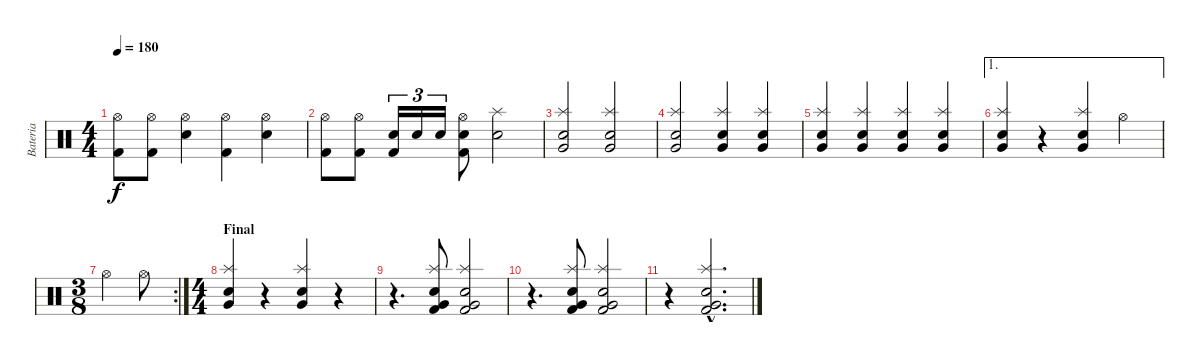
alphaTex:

\track ("Bateria" "Bateria") {instrument percussion}
\staff {score}
\articulation defaults
\ts (4 4)
\tempo 180
\clef neutral
\ks c
("Hi-Hat (open)" "Kick (hit) 2").8{dy f} ("Hi-Hat (open)" "Kick (hit) 2").8 ("Hi-Hat (open)" "Electric Snare (hit)").4 ("Hi-Hat (open)" "Kick (hit) 2").4 ("Hi-Hat (open)" "Electric Snare (hit)").4 |
("Hi-Hat (open)" "Kick (hit) 2").8 ("Hi-Hat (open)" "Kick (hit) 2").8 ("Electric Snare (hit)" "Kick (hit) 2").16{tu (3 2)} "Electric Snare (hit)".16{tu (3 2)} "Electric Snare (hit)".16{tu (3 2)} ("Hi-Hat (open)" "Electric Snare (hit)" "Kick (hit) 2").8 ("Splash (hit)" "Electric Snare (hit)").2 |
("Splash (hit)" "Electric Snare (hit)" "Very Low Tom (hit)").2 ("Splash (hit)" "Electric Snare (hit)" "Very Low Tom (hit)").2 |
("Splash (hit)" "Electric Snare (hit)" "Very Low Tom (hit)").2 ("Splash (hit)" "Electric Snare (hit)" "Very Low Tom (hit)").4 ("Splash (hit)" "Electric Snare (hit)" "Very Low Tom (hit)").4 |
("Splash (hit)" "Electric Snare (hit)" "Very Low Tom (hit)").4 ("Splash (hit)" "Electric Snare (hit)" "Very Low Tom (hit)").4 ("Splash (hit)" "Electric Snare (hit)" "Very Low Tom (hit)").4 ("Splash (hit)" "Electric Snare (hit)" "Very Low Tom (hit)").4 |
\ae 1
("Splash (hit)" "Electric Snare (hit)" "Very Low Tom (hit)").4 r.4 ("Splash (hit)" "Electric Snare (hit)" "Very Low Tom (hit)").4 "Hi-Hat (open)".4 |
\rc 2
\ts (3 8)
"Hi-Hat (open)".4 "Hi-Hat (open)".8 |
\ts (4 4)
\section ("" "Final")
("Splash (hit)" "Electric Snare (hit)" "Very Low Tom (hit)").4 r.4 ("Splash (hit)" "Electric Snare (hit)" "Very Low Tom (hit)").4 r.4 |
r.4{d} ("Splash (hit)" "Electric Snare (hit)" "Very Low Tom (hit)" "Kick (hit) 2").8 ("Splash (hit)" "Electric Snare (hit)" "Very Low Tom (hit)" "Kick (hit) 2").2 |
r.4{d} ("Splash (hit)" "Electric Snare (hit)" "Very Low Tom (hit)" "Kick (hit) 2").8 ("Splash (hit)" "Electric Snare (hit)" "Very Low Tom (hit)" "Kick (hit) 2").2 |
r.4 ("Splash (hit)"{hac} "Electric Snare (hit)"{hac} "Very Low Tom (hit)"{hac} "Kick (hit) 2"{hac}).2{d}
